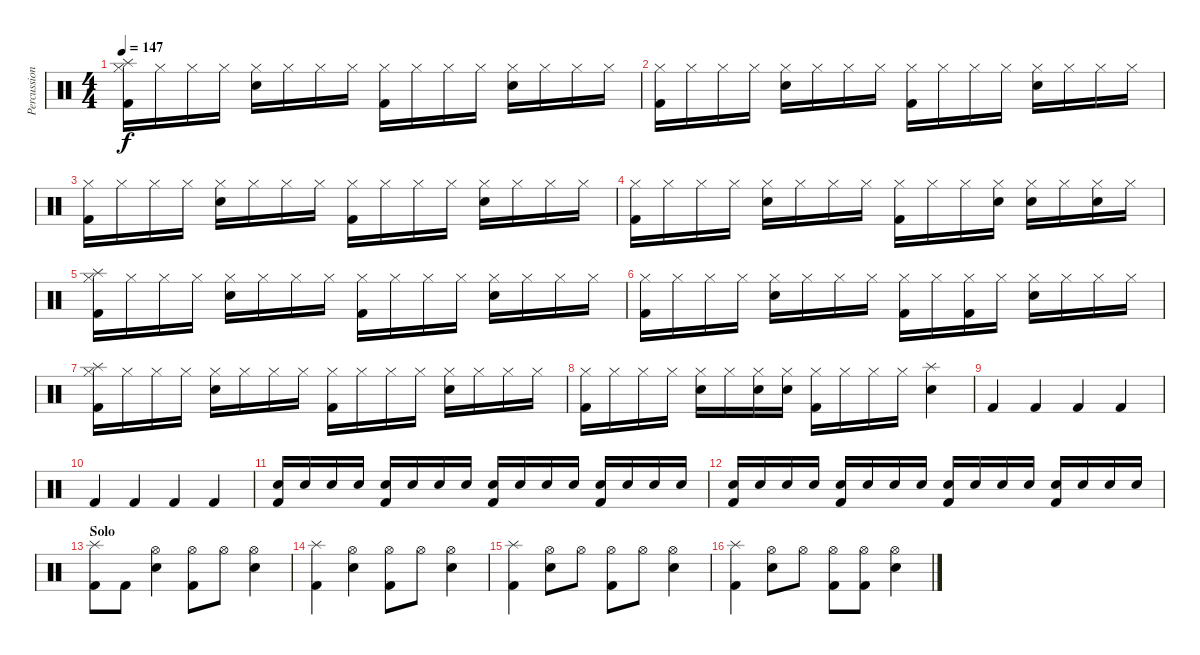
\track ("Percussion" "Percussion") {instrument percussion}
\staff {score}
\articulation defaults
\ts (4 4)
\tempo 147
\clef neutral
\ks c
("Hi-Hat (closed)" "Splash (hit)" "Kick (hit) 2").16{dy f} "Hi-Hat (closed)".16 "Hi-Hat (closed)".16 "Hi-Hat (closed)".16 ("Hi-Hat (closed)" "Snare (hit) 2").16 "Hi-Hat (closed)".16 "Hi-Hat (closed)".16 "Hi-Hat (closed)".16 ("Hi-Hat (closed)" "Kick (hit) 2").16 "Hi-Hat (closed)".16 "Hi-Hat (closed)".16 "Hi-Hat (closed)".16 ("Hi-Hat (closed)" "Snare (hit) 2").16 "Hi-Hat (closed)".16 "Hi-Hat (closed)".16 "Hi-Hat (closed)".16 |
("Hi-Hat (closed)" "Kick (hit) 2").16 "Hi-Hat (closed)".16 "Hi-Hat (closed)".16 "Hi-Hat (closed)".16 ("Hi-Hat (closed)" "Snare (hit) 2").16 "Hi-Hat (closed)".16 "Hi-Hat (closed)".16 "Hi-Hat (closed)".16 ("Hi-Hat (closed)" "Kick (hit) 2").16 "Hi-Hat (closed)".16 "Hi-Hat (closed)".16 "Hi-Hat (closed)".16 ("Hi-Hat (closed)" "Snare (hit) 2").16 "Hi-Hat (closed)".16 "Hi-Hat (closed)".16 "Hi-Hat (closed)".16 |
("Hi-Hat (closed)" "Kick (hit) 2").16 "Hi-Hat (closed)".16 "Hi-Hat (closed)".16 "Hi-Hat (closed)".16 ("Hi-Hat (closed)" "Snare (hit) 2").16 "Hi-Hat (closed)".16 "Hi-Hat (closed)".16 "Hi-Hat (closed)".16 ("Hi-Hat (closed)" "Kick (hit) 2").16 "Hi-Hat (closed)".16 "Hi-Hat (closed)".16 "Hi-Hat (closed)".16 ("Hi-Hat (closed)" "Snare (hit) 2").16 "Hi-Hat (closed)".16 "Hi-Hat (closed)".16 "Hi-Hat (closed)".16 |
("Hi-Hat (closed)" "Kick (hit) 2").16 "Hi-Hat (closed)".16 "Hi-Hat (closed)".16 "Hi-Hat (closed)".16 ("Hi-Hat (closed)" "Snare (hit) 2").16 "Hi-Hat (closed)".16 "Hi-Hat (closed)".16 "Hi-Hat (closed)".16 ("Hi-Hat (closed)" "Kick (hit) 2").16 "Hi-Hat (closed)".16 "Hi-Hat (closed)".16 ("Hi-Hat (closed)" "Snare (hit) 2").16 ("Hi-Hat (closed)" "Snare (hit) 2").16 "Hi-Hat (closed)".16 ("Hi-Hat (closed)" "Snare (hit) 2").16 "Hi-Hat (closed)".16 |
("Hi-Hat (closed)" "Splash (hit)" "Kick (hit) 2").16 "Hi-Hat (closed)".16 "Hi-Hat (closed)".16 "Hi-Hat (closed)".16 ("Hi-Hat (closed)" "Snare (hit) 2").16 "Hi-Hat (closed)".16 "Hi-Hat (closed)".16 "Hi-Hat (closed)".16 ("Hi-Hat (closed)" "Kick (hit) 2").16 "Hi-Hat (closed)".16 "Hi-Hat (closed)".16 "Hi-Hat (closed)".16 ("Hi-Hat (closed)" "Snare (hit) 2").16 "Hi-Hat (closed)".16 "Hi-Hat (closed)".16 "Hi-Hat (closed)".16 |
("Hi-Hat (closed)" "Kick (hit) 2").16 "Hi-Hat (closed)".16 "Hi-Hat (closed)".16 "Hi-Hat (closed)".16 ("Hi-Hat (closed)" "Snare (hit) 2").16 "Hi-Hat (closed)".16 "Hi-Hat (closed)".16 "Hi-Hat (closed)".16 ("Hi-Hat (closed)" "Kick (hit) 2").16 "Hi-Hat (closed)".16 ("Hi-Hat (closed)" "Kick (hit) 2").16 "Hi-Hat (closed)".16 ("Hi-Hat (closed)" "Snare (hit) 2").16 "Hi-Hat (closed)".16 "Hi-Hat (closed)".16 "Hi-Hat (closed)".16 |
("Hi-Hat (closed)" "Splash (hit)" "Kick (hit) 2").16 "Hi-Hat (closed)".16 "Hi-Hat (closed)".16 "Hi-Hat (closed)".16 ("Hi-Hat (closed)" "Snare (hit) 2").16 "Hi-Hat (closed)".16 "Hi-Hat (closed)".16 "Hi-Hat (closed)".16 ("Hi-Hat (closed)" "Kick (hit) 2").16 "Hi-Hat (closed)".16 "Hi-Hat (closed)".16 "Hi-Hat (closed)".16 ("Hi-Hat (closed)" "Snare (hit) 2").16 "Hi-Hat (closed)".16 "Hi-Hat (closed)".16 "Hi-Hat (closed)".16 |
("Hi-Hat (closed)" "Kick (hit) 2").16 "Hi-Hat (closed)".16 "Hi-Hat (closed)".16 "Hi-Hat (closed)".16 ("Hi-Hat (closed)" "Snare (hit) 2").16 "Hi-Hat (closed)".16 ("Hi-Hat (closed)" "Snare (hit) 2").16 ("Hi-Hat (closed)" "Snare (hit) 2").16 ("Hi-Hat (closed)" "Kick (hit) 2").16 "Hi-Hat (closed)".16 "Hi-Hat (closed)".16 "Hi-Hat (closed)".16 ("Splash (hit)" "Snare (hit) 2").4 |
"Kick (hit) 2".4 "Kick (hit) 2".4 "Kick (hit) 2".4 "Kick (hit) 2".4 |
"Kick (hit) 2".4 "Kick (hit) 2".4 "Kick (hit) 2".4 "Kick (hit) 2".4 |
("Snare (hit) 2" "Kick (hit) 2").16 "Snare (hit) 2".16 "Snare (hit) 2".16 "Snare (hit) 2".16 ("Snare (hit) 2" "Kick (hit) 2").16 "Snare (hit) 2".16 "Snare (hit) 2".16 "Snare (hit) 2".16 ("Snare (hit) 2" "Kick (hit) 2").16 "Snare (hit) 2".16 "Snare (hit) 2".16 "Snare (hit) 2".16 ("Snare (hit) 2" "Kick (hit) 2").16 "Snare (hit) 2".16 "Snare (hit) 2".16 "Snare (hit) 2".16 |
("Snare (hit) 2" "Kick (hit) 2").16 "Snare (hit) 2".16 "Snare (hit) 2".16 "Snare (hit) 2".16 ("Snare (hit) 2" "Kick (hit) 2").16 "Snare (hit) 2".16 "Snare (hit) 2".16 "Snare (hit) 2".16 ("Snare (hit) 2" "Kick (hit) 2").16 "Snare (hit) 2".16 "Snare (hit) 2".16 "Snare (hit) 2".16 ("Snare (hit) 2" "Kick (hit) 2").16 "Snare (hit) 2".16 "Snare (hit) 2".16 "Snare (hit) 2".16 |
\section ("" "Solo")
("Splash (hit)" "Kick (hit) 2").8 "Kick (hit) 2".8 ("Hi-Hat (open)" "Snare (hit) 2").4 ("Hi-Hat (open)" "Kick (hit) 2").8 "Hi-Hat (open)".8 ("Hi-Hat (open)" "Snare (hit) 2").4 |
("Splash (hit)" "Kick (hit) 2").4 ("Hi-Hat (open)" "Snare (hit) 2").4 ("Hi-Hat (open)" "Kick (hit) 2").8 "Hi-Hat (open)".8 ("Hi-Hat (open)" "Snare (hit) 2").4 |
("Splash (hit)" "Kick (hit) 2").4 ("Hi-Hat (open)" "Snare (hit) 2").8 "Hi-Hat (open)".8 ("Hi-Hat (open)" "Kick (hit) 2").8 "Hi-Hat (open)".8 ("Hi-Hat (open)" "Snare (hit) 2").4 |
("Splash (hit)" "Kick (hit) 2").4 ("Hi-Hat (open)" "Snare (hit) 2").8 "Hi-Hat (open)".8 ("Hi-Hat (open)" "Kick (hit) 2").8 ("Hi-Hat (open)" "Kick (hit) 2").8 ("Hi-Hat (open)" "Snare (hit) 2").4
